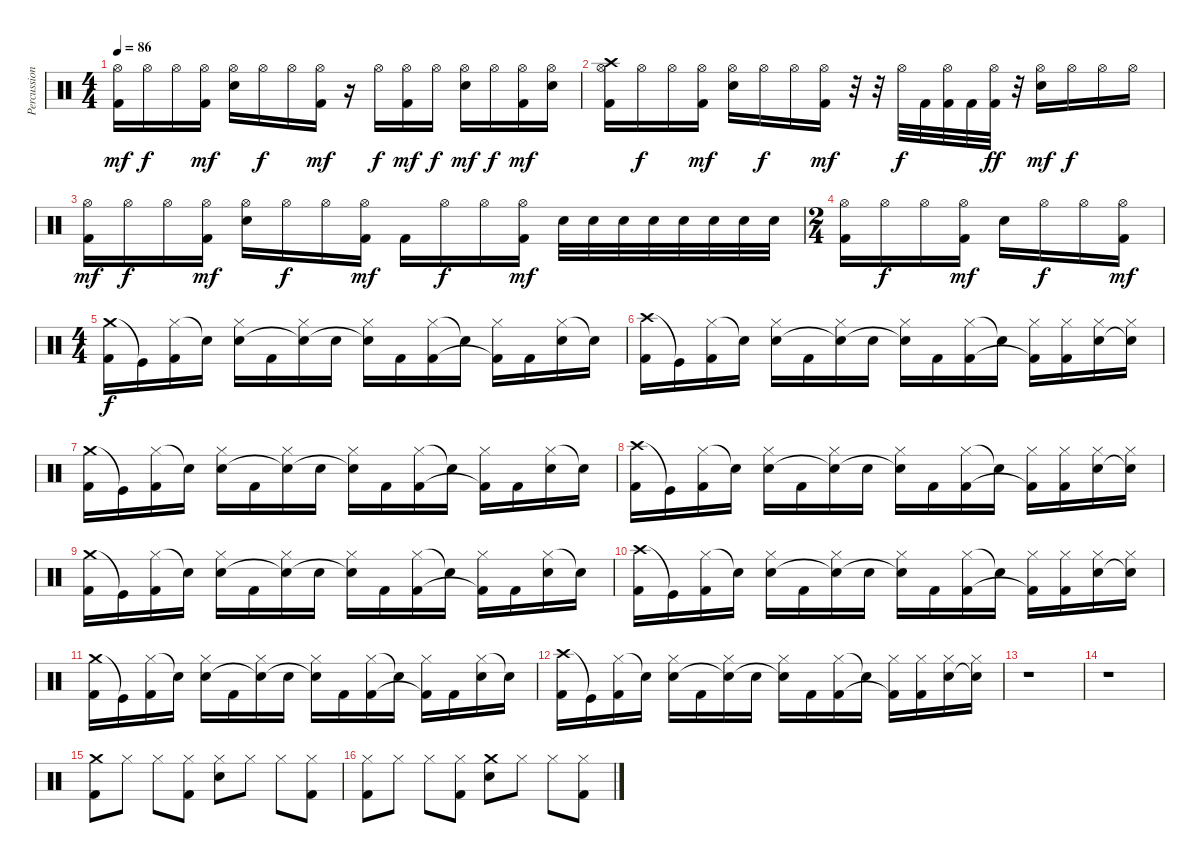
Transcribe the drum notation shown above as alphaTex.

\track ("Percussion" "Percussion") {instrument percussion}
\staff {score}
\articulation defaults
\ts (4 4)
\tempo 86
\clef neutral
\ks c
("Hi-Hat (open)" "Kick (hit) 2").16{dy mf} "Hi-Hat (open)".16{dy f} "Hi-Hat (open)".16 ("Hi-Hat (open)" "Kick (hit) 2").16{dy mf} ("Hi-Hat (open)" "Electric Snare (hit)").16 "Hi-Hat (open)".16{dy f} "Hi-Hat (open)".16 ("Hi-Hat (open)" "Kick (hit) 2").16{dy mf} r.16 "Hi-Hat (open)".16{dy f} ("Hi-Hat (open)" "Kick (hit) 2").16{dy mf} "Hi-Hat (open)".16{dy f} ("Hi-Hat (open)" "Electric Snare (hit)").16{dy mf} "Hi-Hat (open)".16{dy f} ("Hi-Hat (open)" "Kick (hit) 2").16{dy mf} ("Hi-Hat (open)" "Electric Snare (hit)").16 |
("Crash high (hit)" "Hi-Hat (open)" "Kick (hit) 2").16 "Hi-Hat (open)".16{dy f} "Hi-Hat (open)".16 ("Hi-Hat (open)" "Kick (hit) 2").16{dy mf} ("Hi-Hat (open)" "Electric Snare (hit)").16 "Hi-Hat (open)".16{dy f} "Hi-Hat (open)".16 ("Hi-Hat (open)" "Kick (hit) 2").16{dy mf} r.32 r.32 "Hi-Hat (open)".32{dy f} "Kick (hit) 2".32 ("Hi-Hat (open)" "Kick (hit) 2").32 "Kick (hit) 2".32 ("Hi-Hat (open)" "Kick (hit) 2").32{dy ff} r.32 ("Hi-Hat (open)" "Electric Snare (hit)").16{dy mf} "Hi-Hat (open)".16{dy f} "Hi-Hat (open)".16 "Hi-Hat (open)".16 |
("Hi-Hat (open)" "Kick (hit) 2").16{dy mf} "Hi-Hat (open)".16{dy f} "Hi-Hat (open)".16 ("Hi-Hat (open)" "Kick (hit) 2").16{dy mf} ("Hi-Hat (open)" "Electric Snare (hit)").16 "Hi-Hat (open)".16{dy f} "Hi-Hat (open)".16 ("Hi-Hat (open)" "Kick (hit) 2").16{dy mf} "Kick (hit) 2".16 "Hi-Hat (open)".16{dy f} "Hi-Hat (open)".16 ("Hi-Hat (open)" "Kick (hit) 2").16{dy mf} "Electric Snare (hit)".32 "Electric Snare (hit)".32 "Electric Snare (hit)".32 "Electric Snare (hit)".32 "Electric Snare (hit)".32 "Electric Snare (hit)".32 "Electric Snare (hit)".32 "Electric Snare (hit)".32 |
\ts (2 4)
("Hi-Hat (open)" "Kick (hit) 2").16 "Hi-Hat (open)".16{dy f} "Hi-Hat (open)".16 ("Hi-Hat (open)" "Kick (hit) 2").16{dy mf} "Electric Snare (hit)".16 "Hi-Hat (open)".16{dy f} "Hi-Hat (open)".16 ("Hi-Hat (open)" "Kick (hit) 2").16{dy mf} |
\ts (4 4)
("Crash medium (hit)" "Kick (hit) 2").16{dy f} "Kick (hit)"{t}.16 ("Hi-Hat (closed)" "Kick (hit) 2").16 "Snare (hit)"{t}.16 ("Hi-Hat (closed)" "Electric Snare (hit)").16 "Kick (hit) 2".16 ("Hi-Hat (closed)" "Snare (hit)"{t}).16 "Electric Snare (hit)".16 ("Hi-Hat (closed)" "Snare (hit)"{t}).16 "Kick (hit) 2".16 ("Hi-Hat (closed)" "Kick (hit) 2").16 "Snare (hit)"{t}.16 ("Hi-Hat (closed)" "Kick (hit) 2"{t}).16 "Kick (hit) 2".16 ("Hi-Hat (closed)" "Electric Snare (hit)").16 "Snare (hit)"{t}.16 |
("Crash high (hit)" "Kick (hit) 2").16 "Kick (hit)"{t}.16 ("Hi-Hat (closed)" "Kick (hit) 2").16 "Snare (hit)"{t}.16 ("Hi-Hat (closed)" "Electric Snare (hit)").16 "Kick (hit) 2".16 ("Hi-Hat (closed)" "Snare (hit)"{t}).16 "Electric Snare (hit)".16 ("Hi-Hat (closed)" "Snare (hit)"{t}).16 "Kick (hit) 2".16 ("Hi-Hat (closed)" "Kick (hit) 2").16 "Snare (hit)"{t}.16 ("Hi-Hat (closed)" "Kick (hit) 2"{t}).16 ("Hi-Hat (closed)" "Kick (hit) 2").16 ("Hi-Hat (closed)" "Electric Snare (hit)").16 ("Hi-Hat (closed)" "Snare (hit)"{t}).16 |
("Crash medium (hit)" "Kick (hit) 2").16 "Kick (hit)"{t}.16 ("Hi-Hat (closed)" "Kick (hit) 2").16 "Snare (hit)"{t}.16 ("Hi-Hat (closed)" "Electric Snare (hit)").16 "Kick (hit) 2".16 ("Hi-Hat (closed)" "Snare (hit)"{t}).16 "Electric Snare (hit)".16 ("Hi-Hat (closed)" "Snare (hit)"{t}).16 "Kick (hit) 2".16 ("Hi-Hat (closed)" "Kick (hit) 2").16 "Snare (hit)"{t}.16 ("Hi-Hat (closed)" "Kick (hit) 2"{t}).16 "Kick (hit) 2".16 ("Hi-Hat (closed)" "Electric Snare (hit)").16 "Snare (hit)"{t}.16 |
("Crash high (hit)" "Kick (hit) 2").16 "Kick (hit)"{t}.16 ("Hi-Hat (closed)" "Kick (hit) 2").16 "Snare (hit)"{t}.16 ("Hi-Hat (closed)" "Electric Snare (hit)").16 "Kick (hit) 2".16 ("Hi-Hat (closed)" "Snare (hit)"{t}).16 "Electric Snare (hit)".16 ("Hi-Hat (closed)" "Snare (hit)"{t}).16 "Kick (hit) 2".16 ("Hi-Hat (closed)" "Kick (hit) 2").16 "Snare (hit)"{t}.16 ("Hi-Hat (closed)" "Kick (hit) 2"{t}).16 ("Hi-Hat (closed)" "Kick (hit) 2").16 ("Hi-Hat (closed)" "Electric Snare (hit)").16 ("Hi-Hat (closed)" "Snare (hit)"{t}).16 |
("Crash medium (hit)" "Kick (hit) 2").16 "Kick (hit)"{t}.16 ("Hi-Hat (closed)" "Kick (hit) 2").16 "Snare (hit)"{t}.16 ("Hi-Hat (closed)" "Electric Snare (hit)").16 "Kick (hit) 2".16 ("Hi-Hat (closed)" "Snare (hit)"{t}).16 "Electric Snare (hit)".16 ("Hi-Hat (closed)" "Snare (hit)"{t}).16 "Kick (hit) 2".16 ("Hi-Hat (closed)" "Kick (hit) 2").16 "Snare (hit)"{t}.16 ("Hi-Hat (closed)" "Kick (hit) 2"{t}).16 "Kick (hit) 2".16 ("Hi-Hat (closed)" "Electric Snare (hit)").16 "Snare (hit)"{t}.16 |
("Crash high (hit)" "Kick (hit) 2").16 "Kick (hit)"{t}.16 ("Hi-Hat (closed)" "Kick (hit) 2").16 "Snare (hit)"{t}.16 ("Hi-Hat (closed)" "Electric Snare (hit)").16 "Kick (hit) 2".16 ("Hi-Hat (closed)" "Snare (hit)"{t}).16 "Electric Snare (hit)".16 ("Hi-Hat (closed)" "Snare (hit)"{t}).16 "Kick (hit) 2".16 ("Hi-Hat (closed)" "Kick (hit) 2").16 "Snare (hit)"{t}.16 ("Hi-Hat (closed)" "Kick (hit) 2"{t}).16 ("Hi-Hat (closed)" "Kick (hit) 2").16 ("Hi-Hat (closed)" "Electric Snare (hit)").16 ("Hi-Hat (closed)" "Snare (hit)"{t}).16 |
("Crash medium (hit)" "Kick (hit) 2").16 "Kick (hit)"{t}.16 ("Hi-Hat (closed)" "Kick (hit) 2").16 "Snare (hit)"{t}.16 ("Hi-Hat (closed)" "Electric Snare (hit)").16 "Kick (hit) 2".16 ("Hi-Hat (closed)" "Snare (hit)"{t}).16 "Electric Snare (hit)".16 ("Hi-Hat (closed)" "Snare (hit)"{t}).16 "Kick (hit) 2".16 ("Hi-Hat (closed)" "Kick (hit) 2").16 "Snare (hit)"{t}.16 ("Hi-Hat (closed)" "Kick (hit) 2"{t}).16 "Kick (hit) 2".16 ("Hi-Hat (closed)" "Electric Snare (hit)").16 "Snare (hit)"{t}.16 |
("Crash high (hit)" "Kick (hit) 2").16 "Kick (hit)"{t}.16 ("Hi-Hat (closed)" "Kick (hit) 2").16 "Snare (hit)"{t}.16 ("Hi-Hat (closed)" "Electric Snare (hit)").16 "Kick (hit) 2".16 ("Hi-Hat (closed)" "Snare (hit)"{t}).16 "Electric Snare (hit)".16 ("Hi-Hat (closed)" "Snare (hit)"{t}).16 "Kick (hit) 2".16 ("Hi-Hat (closed)" "Kick (hit) 2").16 "Snare (hit)"{t}.16 ("Hi-Hat (closed)" "Kick (hit) 2"{t}).16 ("Hi-Hat (closed)" "Kick (hit) 2").16 ("Hi-Hat (closed)" "Electric Snare (hit)").16 ("Hi-Hat (closed)" "Snare (hit)"{t}).16 |
r.1 |
r.1 |
("Kick (hit) 2" "Crash medium (hit)").8 "Hi-Hat (closed)".8 "Hi-Hat (closed)".8 ("Kick (hit) 2" "Hi-Hat (closed)").8 ("Electric Snare (hit)" "Hi-Hat (closed)").8 "Hi-Hat (closed)".8 "Hi-Hat (closed)".8 ("Kick (hit) 2" "Hi-Hat (closed)").8 |
("Kick (hit) 2" "Hi-Hat (closed)").8 "Hi-Hat (closed)".8 "Hi-Hat (closed)".8 ("Kick (hit) 2" "Hi-Hat (closed)").8 ("Crash medium (hit)" "Electric Snare (hit)").8 "Hi-Hat (closed)".8 "Hi-Hat (closed)".8 ("Kick (hit) 2" "Hi-Hat (closed)").8
